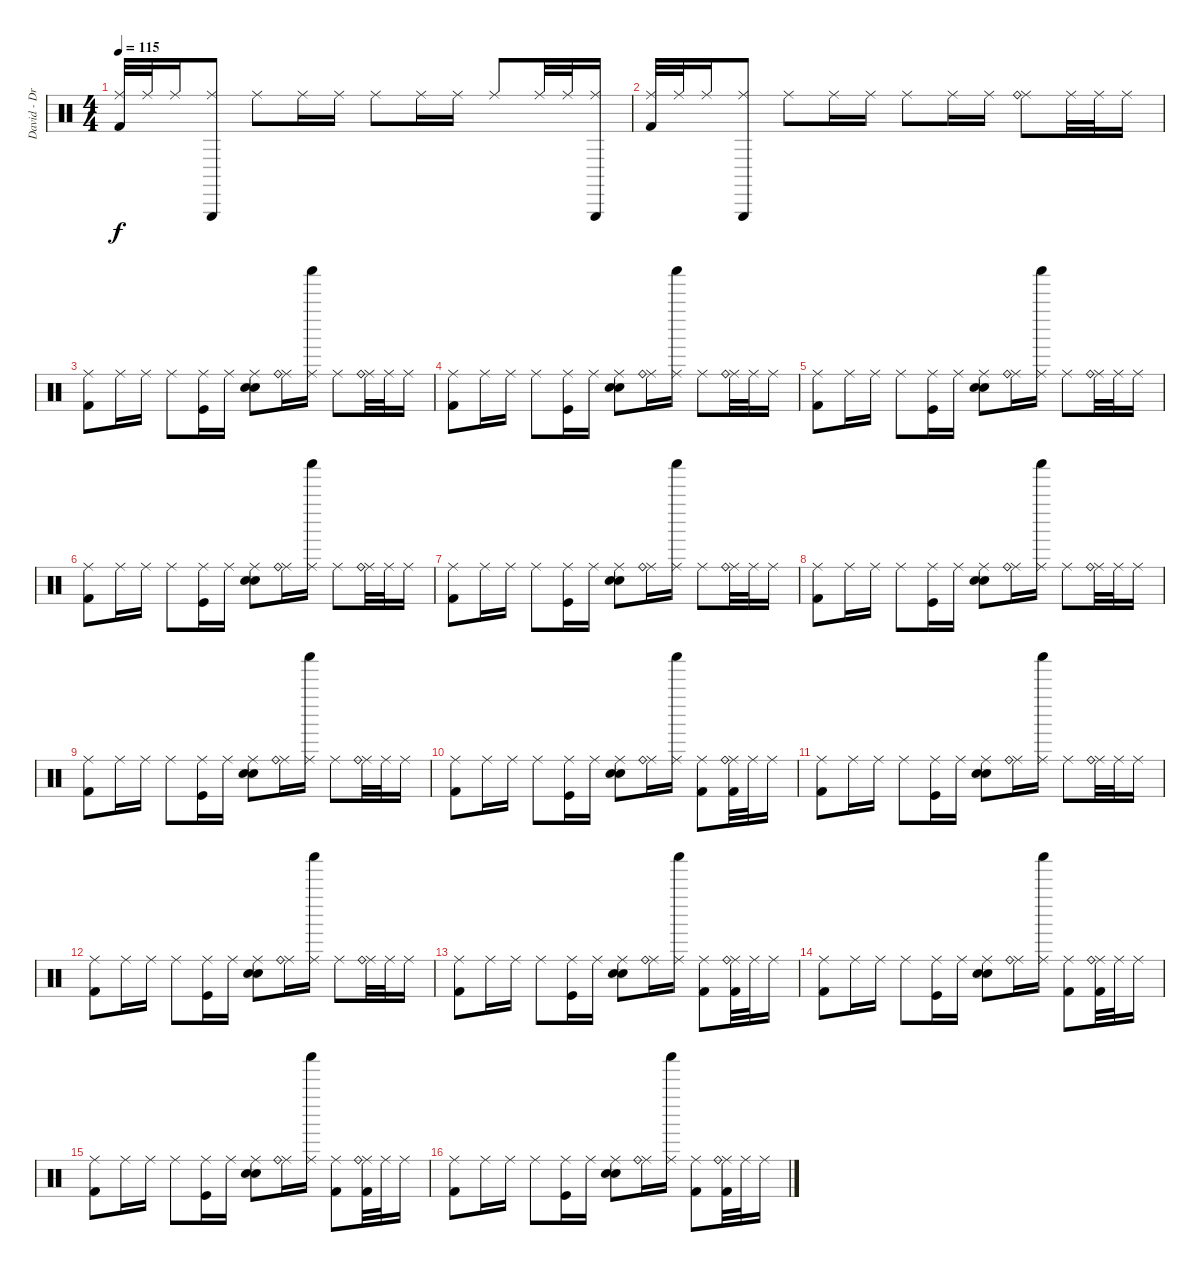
\track ("David - Drums" "David - Dr") {instrument percussion}
\staff {score}
\articulation defaults
\ts (4 4)
\tempo 115
\clef neutral
\ks c
("Ride (middle)" "Kick (hit) 2").32{dy f} "Ride (middle)".32 "Ride (middle)".16 ("Ride (middle)" "Triangle (hit)").8 "Ride (middle)".8 "Ride (middle)".16 "Ride (middle)".16 "Ride (middle)".8 "Ride (middle)".16 "Ride (middle)".16 "Ride (middle)".8 "Ride (middle)".32 "Ride (middle)".32 ("Ride (middle)" "Triangle (hit)").16 |
("Ride (middle)" "Kick (hit) 2").32 "Ride (middle)".32 "Ride (middle)".16 ("Ride (middle)" "Triangle (hit)").8 "Ride (middle)".8 "Ride (middle)".16 "Ride (middle)".16 "Ride (middle)".8 "Ride (middle)".16 "Ride (middle)".16 ("Ride (middle)" "Ride (bell)").8 "Ride (middle)".32 "Ride (middle)".32 "Ride (middle)".16 |
("Ride (middle)" "Kick (hit) 2").8 "Ride (middle)".16 "Ride (middle)".16 "Ride (middle)".8 ("Ride (middle)" "Kick (hit)").16 "Ride (middle)".16 ("Ride (middle)" "Electric Snare (hit)" "Snare (hit) 2").8 ("Ride (middle)" "Ride (bell)").16 ("Ride (middle)" "Shaker (hit)").16 "Ride (middle)".8 ("Ride (middle)" "Ride (bell)").32 "Ride (middle)".32 "Ride (middle)".16 |
("Ride (middle)" "Kick (hit) 2").8 "Ride (middle)".16 "Ride (middle)".16 "Ride (middle)".8 ("Ride (middle)" "Kick (hit)").16 "Ride (middle)".16 ("Ride (middle)" "Electric Snare (hit)" "Snare (hit) 2").8 ("Ride (middle)" "Ride (bell)").16 ("Ride (middle)" "Shaker (hit)").16 "Ride (middle)".8 ("Ride (middle)" "Ride (bell)").32 "Ride (middle)".32 "Ride (middle)".16 |
("Ride (middle)" "Kick (hit) 2").8 "Ride (middle)".16 "Ride (middle)".16 "Ride (middle)".8 ("Ride (middle)" "Kick (hit)").16 "Ride (middle)".16 ("Ride (middle)" "Electric Snare (hit)" "Snare (hit) 2").8 ("Ride (middle)" "Ride (bell)").16 ("Ride (middle)" "Shaker (hit)").16 "Ride (middle)".8 ("Ride (middle)" "Ride (bell)").32 "Ride (middle)".32 "Ride (middle)".16 |
("Ride (middle)" "Kick (hit) 2").8 "Ride (middle)".16 "Ride (middle)".16 "Ride (middle)".8 ("Ride (middle)" "Kick (hit)").16 "Ride (middle)".16 ("Ride (middle)" "Electric Snare (hit)" "Snare (hit) 2").8 ("Ride (middle)" "Ride (bell)").16 ("Ride (middle)" "Shaker (hit)").16 "Ride (middle)".8 ("Ride (middle)" "Ride (bell)").32 "Ride (middle)".32 "Ride (middle)".16 |
("Ride (middle)" "Kick (hit) 2").8 "Ride (middle)".16 "Ride (middle)".16 "Ride (middle)".8 ("Ride (middle)" "Kick (hit)").16 "Ride (middle)".16 ("Ride (middle)" "Electric Snare (hit)" "Snare (hit) 2").8 ("Ride (middle)" "Ride (bell)").16 ("Ride (middle)" "Shaker (hit)").16 "Ride (middle)".8 ("Ride (middle)" "Ride (bell)").32 "Ride (middle)".32 "Ride (middle)".16 |
("Ride (middle)" "Kick (hit) 2").8 "Ride (middle)".16 "Ride (middle)".16 "Ride (middle)".8 ("Ride (middle)" "Kick (hit)").16 "Ride (middle)".16 ("Ride (middle)" "Electric Snare (hit)" "Snare (hit) 2").8 ("Ride (middle)" "Ride (bell)").16 ("Ride (middle)" "Shaker (hit)").16 "Ride (middle)".8 ("Ride (middle)" "Ride (bell)").32 "Ride (middle)".32 "Ride (middle)".16 |
("Ride (middle)" "Kick (hit) 2").8 "Ride (middle)".16 "Ride (middle)".16 "Ride (middle)".8 ("Ride (middle)" "Kick (hit)").16 "Ride (middle)".16 ("Ride (middle)" "Electric Snare (hit)" "Snare (hit) 2").8 ("Ride (middle)" "Ride (bell)").16 ("Ride (middle)" "Shaker (hit)").16 "Ride (middle)".8 ("Ride (middle)" "Ride (bell)").32 "Ride (middle)".32 "Ride (middle)".16 |
("Ride (middle)" "Kick (hit) 2").8 "Ride (middle)".16 "Ride (middle)".16 "Ride (middle)".8 ("Ride (middle)" "Kick (hit)").16 "Ride (middle)".16 ("Ride (middle)" "Electric Snare (hit)" "Snare (hit) 2").8 ("Ride (middle)" "Ride (bell)").16 ("Ride (middle)" "Shaker (hit)").16 ("Ride (middle)" "Kick (hit) 2").8 ("Ride (middle)" "Ride (bell)" "Kick (hit) 2").32 "Ride (middle)".32 "Ride (middle)".16 |
("Ride (middle)" "Kick (hit) 2").8 "Ride (middle)".16 "Ride (middle)".16 "Ride (middle)".8 ("Ride (middle)" "Kick (hit)").16 "Ride (middle)".16 ("Ride (middle)" "Electric Snare (hit)" "Snare (hit) 2").8 ("Ride (middle)" "Ride (bell)").16 ("Ride (middle)" "Shaker (hit)").16 "Ride (middle)".8 ("Ride (middle)" "Ride (bell)").32 "Ride (middle)".32 "Ride (middle)".16 |
("Ride (middle)" "Kick (hit) 2").8 "Ride (middle)".16 "Ride (middle)".16 "Ride (middle)".8 ("Ride (middle)" "Kick (hit)").16 "Ride (middle)".16 ("Ride (middle)" "Electric Snare (hit)" "Snare (hit) 2").8 ("Ride (middle)" "Ride (bell)").16 ("Ride (middle)" "Shaker (hit)").16 "Ride (middle)".8 ("Ride (middle)" "Ride (bell)").32 "Ride (middle)".32 "Ride (middle)".16 |
("Ride (middle)" "Kick (hit) 2").8 "Ride (middle)".16 "Ride (middle)".16 "Ride (middle)".8 ("Ride (middle)" "Kick (hit)").16 "Ride (middle)".16 ("Ride (middle)" "Electric Snare (hit)" "Snare (hit) 2").8 ("Ride (middle)" "Ride (bell)").16 ("Ride (middle)" "Shaker (hit)").16 ("Ride (middle)" "Kick (hit) 2").8 ("Ride (middle)" "Ride (bell)" "Kick (hit) 2").32 "Ride (middle)".32 "Ride (middle)".16 |
("Ride (middle)" "Kick (hit) 2").8 "Ride (middle)".16 "Ride (middle)".16 "Ride (middle)".8 ("Ride (middle)" "Kick (hit)").16 "Ride (middle)".16 ("Ride (middle)" "Electric Snare (hit)" "Snare (hit) 2").8 ("Ride (middle)" "Ride (bell)").16 ("Ride (middle)" "Shaker (hit)").16 ("Ride (middle)" "Kick (hit) 2").8 ("Ride (middle)" "Ride (bell)" "Kick (hit) 2").32 "Ride (middle)".32 "Ride (middle)".16 |
("Ride (middle)" "Kick (hit) 2").8 "Ride (middle)".16 "Ride (middle)".16 "Ride (middle)".8 ("Ride (middle)" "Kick (hit)").16 "Ride (middle)".16 ("Ride (middle)" "Electric Snare (hit)" "Snare (hit) 2").8 ("Ride (middle)" "Ride (bell)").16 ("Ride (middle)" "Shaker (hit)").16 ("Ride (middle)" "Kick (hit) 2").8 ("Ride (middle)" "Ride (bell)" "Kick (hit) 2").32 "Ride (middle)".32 "Ride (middle)".16 |
("Ride (middle)" "Kick (hit) 2").8 "Ride (middle)".16 "Ride (middle)".16 "Ride (middle)".8 ("Ride (middle)" "Kick (hit)").16 "Ride (middle)".16 ("Ride (middle)" "Electric Snare (hit)" "Snare (hit) 2").8 ("Ride (middle)" "Ride (bell)").16 ("Ride (middle)" "Shaker (hit)").16 ("Ride (middle)" "Kick (hit) 2").8 ("Ride (middle)" "Ride (bell)" "Kick (hit) 2").32 "Ride (middle)".32 "Ride (middle)".16
